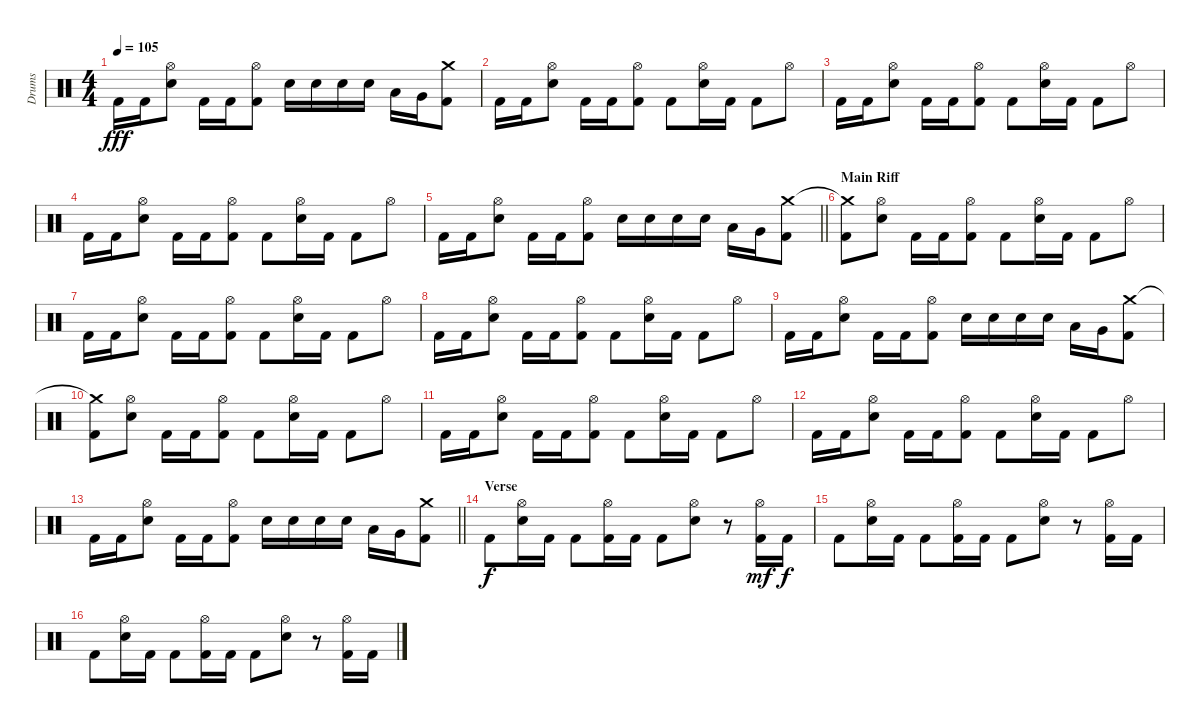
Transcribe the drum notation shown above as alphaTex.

\track ("Drums" "Drums") {instrument percussion}
\staff {score}
\articulation defaults
\ts (4 4)
\tempo 105
\clef neutral
\ks c "Kick (hit) 2".16{dy fff} "Kick (hit) 2".16
("Hi-Hat (open)" "Snare (hit) 2").8 "Kick (hit) 2".16 "Kick (hit) 2".16 ("Hi-Hat (open)" "Kick (hit) 2").8 "Snare (hit) 2".16 "Snare (hit) 2".16 "Snare (hit) 2".16 "Snare (hit) 2".16 "Low Tom (hit)".16 "Very Low Tom (hit)".16 ("Crash medium (hit)" "Kick (hit) 2").8 |
"Kick (hit) 2".16 "Kick (hit) 2".16 ("Hi-Hat (open)" "Snare (hit) 2").8 "Kick (hit) 2".16 "Kick (hit) 2".16 ("Hi-Hat (open)" "Kick (hit) 2").8 "Kick (hit) 2".8 ("Hi-Hat (open)" "Snare (hit) 2").16 "Kick (hit) 2".16 "Kick (hit) 2".8 "Hi-Hat (open)".8 |
"Kick (hit) 2".16 "Kick (hit) 2".16 ("Hi-Hat (open)" "Snare (hit) 2").8 "Kick (hit) 2".16 "Kick (hit) 2".16 ("Hi-Hat (open)" "Kick (hit) 2").8 "Kick (hit) 2".8 ("Hi-Hat (open)" "Snare (hit) 2").16 "Kick (hit) 2".16 "Kick (hit) 2".8 "Hi-Hat (open)".8 |
"Kick (hit) 2".16 "Kick (hit) 2".16 ("Hi-Hat (open)" "Snare (hit) 2").8 "Kick (hit) 2".16 "Kick (hit) 2".16 ("Hi-Hat (open)" "Kick (hit) 2").8 "Kick (hit) 2".8 ("Hi-Hat (open)" "Snare (hit) 2").16 "Kick (hit) 2".16 "Kick (hit) 2".8 "Hi-Hat (open)".8 |
\barLineRight lightlight "Kick (hit) 2".16 "Kick (hit) 2".16
("Hi-Hat (open)" "Snare (hit) 2").8 "Kick (hit) 2".16 "Kick (hit) 2".16 ("Hi-Hat (open)" "Kick (hit) 2").8 "Snare (hit) 2".16 "Snare (hit) 2".16 "Snare (hit) 2".16 "Snare (hit) 2".16 "Low Tom (hit)".16 "Very Low Tom (hit)".16 ("Crash medium (hit)" "Kick (hit) 2").8 |
\section ("" "Main Riff")
("Crash medium (hit)"{t} "Kick (hit) 2").8 ("Hi-Hat (open)" "Snare (hit) 2").8 "Kick (hit) 2".16 "Kick (hit) 2".16 ("Hi-Hat (open)" "Kick (hit) 2").8 "Kick (hit) 2".8 ("Hi-Hat (open)" "Snare (hit) 2").16 "Kick (hit) 2".16 "Kick (hit) 2".8 "Hi-Hat (open)".8 |
"Kick (hit) 2".16 "Kick (hit) 2".16 ("Hi-Hat (open)" "Snare (hit) 2").8 "Kick (hit) 2".16 "Kick (hit) 2".16 ("Hi-Hat (open)" "Kick (hit) 2").8 "Kick (hit) 2".8 ("Hi-Hat (open)" "Snare (hit) 2").16 "Kick (hit) 2".16 "Kick (hit) 2".8 "Hi-Hat (open)".8 |
"Kick (hit) 2".16 "Kick (hit) 2".16 ("Hi-Hat (open)" "Snare (hit) 2").8 "Kick (hit) 2".16 "Kick (hit) 2".16 ("Hi-Hat (open)" "Kick (hit) 2").8 "Kick (hit) 2".8 ("Hi-Hat (open)" "Snare (hit) 2").16 "Kick (hit) 2".16 "Kick (hit) 2".8 "Hi-Hat (open)".8 |
"Kick (hit) 2".16 "Kick (hit) 2".16 ("Hi-Hat (open)" "Snare (hit) 2").8 "Kick (hit) 2".16 "Kick (hit) 2".16 ("Hi-Hat (open)" "Kick (hit) 2").8 "Snare (hit) 2".16 "Snare (hit) 2".16 "Snare (hit) 2".16 "Snare (hit) 2".16 "Low Tom (hit)".16 "Very Low Tom (hit)".16 ("Crash medium (hit)" "Kick (hit) 2").8 |
("Crash medium (hit)"{t} "Kick (hit) 2").8 ("Hi-Hat (open)" "Snare (hit) 2").8 "Kick (hit) 2".16 "Kick (hit) 2".16 ("Hi-Hat (open)" "Kick (hit) 2").8 "Kick (hit) 2".8 ("Hi-Hat (open)" "Snare (hit) 2").16 "Kick (hit) 2".16 "Kick (hit) 2".8 "Hi-Hat (open)".8 |
"Kick (hit) 2".16 "Kick (hit) 2".16 ("Hi-Hat (open)" "Snare (hit) 2").8 "Kick (hit) 2".16 "Kick (hit) 2".16 ("Hi-Hat (open)" "Kick (hit) 2").8 "Kick (hit) 2".8 ("Hi-Hat (open)" "Snare (hit) 2").16 "Kick (hit) 2".16 "Kick (hit) 2".8 "Hi-Hat (open)".8 |
"Kick (hit) 2".16 "Kick (hit) 2".16 ("Hi-Hat (open)" "Snare (hit) 2").8 "Kick (hit) 2".16 "Kick (hit) 2".16 ("Hi-Hat (open)" "Kick (hit) 2").8 "Kick (hit) 2".8 ("Hi-Hat (open)" "Snare (hit) 2").16 "Kick (hit) 2".16 "Kick (hit) 2".8 "Hi-Hat (open)".8 |
\barLineRight lightlight "Kick (hit) 2".16 "Kick (hit) 2".16
("Hi-Hat (open)" "Snare (hit) 2").8 "Kick (hit) 2".16 "Kick (hit) 2".16 ("Hi-Hat (open)" "Kick (hit) 2").8 "Snare (hit) 2".16 "Snare (hit) 2".16 "Snare (hit) 2".16 "Snare (hit) 2".16 "Low Tom (hit)".16 "Very Low Tom (hit)".16 ("Crash medium (hit)" "Kick (hit) 2").8 |
\section ("" "Verse")
"Kick (hit) 2".8{dy f} ("Hi-Hat (open)" "Snare (hit) 2").16 "Kick (hit) 2".16 "Kick (hit) 2".8 ("Hi-Hat (open)" "Kick (hit) 2").16 "Kick (hit) 2".16 "Kick (hit) 2".8 ("Hi-Hat (open)" "Snare (hit) 2").8 r.8 ("Hi-Hat (open)" "Kick (hit) 2").16{dy mf} "Kick (hit) 2".16{dy f} |
"Kick (hit) 2".8 ("Hi-Hat (open)" "Snare (hit) 2").16 "Kick (hit) 2".16 "Kick (hit) 2".8 ("Hi-Hat (open)" "Kick (hit) 2").16 "Kick (hit) 2".16 "Kick (hit) 2".8 ("Hi-Hat (open)" "Snare (hit) 2").8 r.8 ("Hi-Hat (open)" "Kick (hit) 2").16 "Kick (hit) 2".16 |
"Kick (hit) 2".8 ("Hi-Hat (open)" "Snare (hit) 2").16 "Kick (hit) 2".16 "Kick (hit) 2".8 ("Hi-Hat (open)" "Kick (hit) 2").16 "Kick (hit) 2".16 "Kick (hit) 2".8 ("Hi-Hat (open)" "Snare (hit) 2").8 r.8 ("Hi-Hat (open)" "Kick (hit) 2").16 "Kick (hit) 2".16
